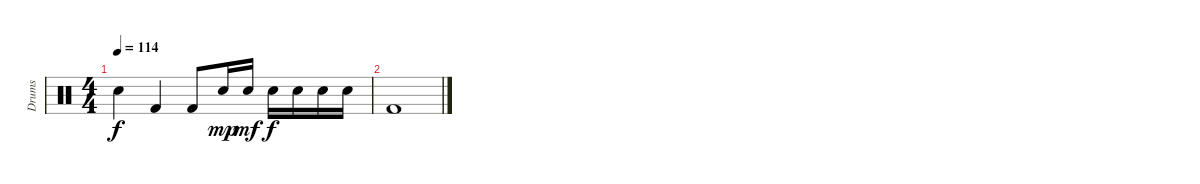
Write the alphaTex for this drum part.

\track ("Drums" "Drums") {instrument percussion}
\staff {score}
\articulation defaults
\ts (4 4)
\tempo 114
\clef neutral
\ks c "Electric Snare (hit)".4{dy f} "Kick (hit) 2".4 "Kick (hit) 2".8 "Electric Snare (hit)".16{dy mp} "Electric Snare (hit)".16{dy mf} "Electric Snare (hit)".16{dy f} "Electric Snare (hit)".16 "Electric Snare (hit)".16 "Electric Snare (hit)".16
|
"Kick (hit) 2".1
